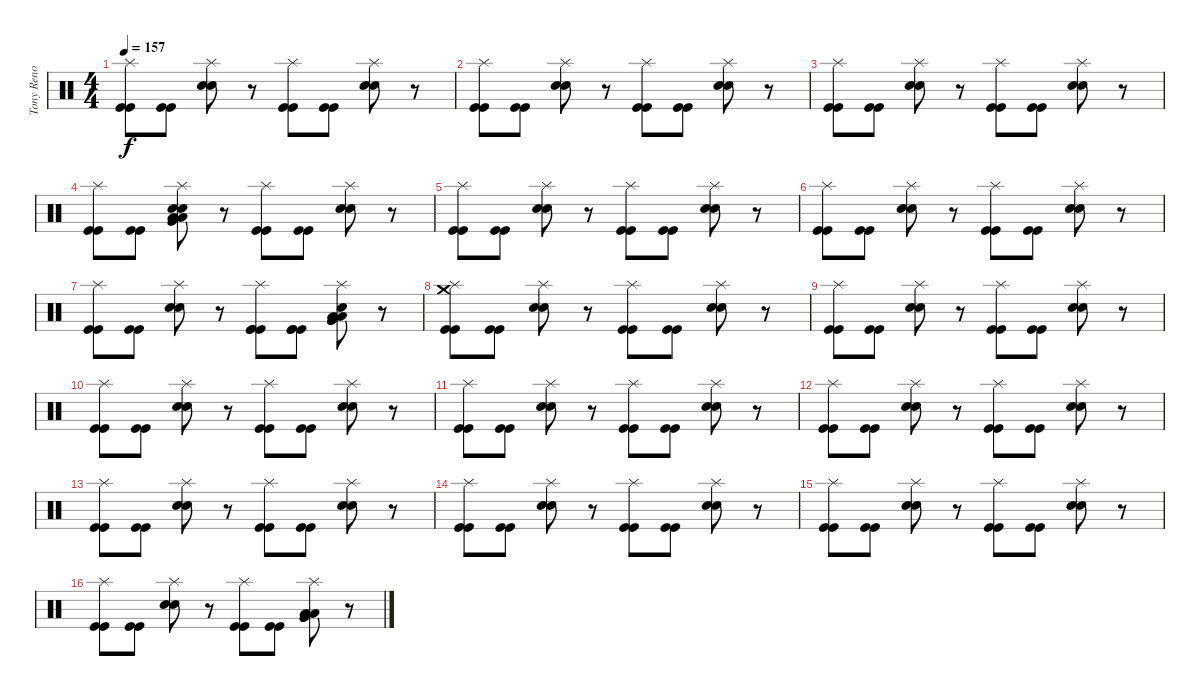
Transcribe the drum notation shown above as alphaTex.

\track ("Tony Reno ( 1984 < Ian Haughland )" "Tony Reno ") {instrument percussion}
\staff {score}
\articulation defaults
\ts (4 4)
\tempo 157
\clef neutral
\ks c
("Kick (hit)" "Kick (hit)" "Splash (hit)").8{dy f} ("Kick (hit)" "Kick (hit)").8 ("Splash (hit)" "Electric Snare (hit)" "Electric Snare (hit)").8 r.8 ("Kick (hit)" "Kick (hit)" "Splash (hit)").8 ("Kick (hit)" "Kick (hit)").8 ("Splash (hit)" "Electric Snare (hit)" "Electric Snare (hit)").8 r.8 |
("Kick (hit)" "Kick (hit)" "Splash (hit)").8 ("Kick (hit)" "Kick (hit)").8 ("Splash (hit)" "Electric Snare (hit)" "Electric Snare (hit)").8 r.8 ("Kick (hit)" "Kick (hit)" "Splash (hit)").8 ("Kick (hit)" "Kick (hit)").8 ("Splash (hit)" "Electric Snare (hit)" "Electric Snare (hit)").8 r.8 |
("Kick (hit)" "Kick (hit)" "Splash (hit)").8 ("Kick (hit)" "Kick (hit)").8 ("Splash (hit)" "Electric Snare (hit)" "Electric Snare (hit)").8 r.8 ("Kick (hit)" "Kick (hit)" "Splash (hit)").8 ("Kick (hit)" "Kick (hit)").8 ("Splash (hit)" "Electric Snare (hit)" "Electric Snare (hit)").8 r.8 |
("Kick (hit)" "Kick (hit)" "Splash (hit)").8 ("Kick (hit)" "Kick (hit)").8 ("Low Tom (hit)" "Very Low Tom (hit)" "Low Floor Tom (hit)" "Splash (hit)" "Electric Snare (hit)" "Electric Snare (hit)").8 r.8 ("Kick (hit)" "Kick (hit)" "Splash (hit)").8 ("Kick (hit)" "Kick (hit)").8 ("Splash (hit)" "Electric Snare (hit)" "Electric Snare (hit)").8 r.8 |
("Kick (hit)" "Kick (hit)" "Splash (hit)").8 ("Kick (hit)" "Kick (hit)").8 ("Splash (hit)" "Electric Snare (hit)" "Electric Snare (hit)").8 r.8 ("Kick (hit)" "Kick (hit)" "Splash (hit)").8 ("Kick (hit)" "Kick (hit)").8 ("Splash (hit)" "Electric Snare (hit)" "Electric Snare (hit)").8 r.8 |
("Kick (hit)" "Kick (hit)" "Splash (hit)").8 ("Kick (hit)" "Kick (hit)").8 ("Splash (hit)" "Electric Snare (hit)" "Electric Snare (hit)").8 r.8 ("Kick (hit)" "Kick (hit)" "Splash (hit)").8 ("Kick (hit)" "Kick (hit)").8 ("Splash (hit)" "Electric Snare (hit)" "Electric Snare (hit)").8 r.8 |
("Kick (hit)" "Kick (hit)" "Splash (hit)").8 ("Kick (hit)" "Kick (hit)").8 ("Splash (hit)" "Electric Snare (hit)" "Electric Snare (hit)").8 r.8 ("Kick (hit)" "Kick (hit)" "Splash (hit)" "Kick (hit)").8 ("Kick (hit)" "Kick (hit)" "Kick (hit)").8 ("Low Tom (hit)" "Low Tom (hit)" "Very Low Tom (hit)" "Very Low Tom (hit)" "Splash (hit)" "Electric Snare (hit)").8 r.8 |
("Crash medium (hit)" "Kick (hit)" "Kick (hit)" "Splash (hit)").8 ("Kick (hit)" "Kick (hit)").8 ("Electric Snare (hit)" "Electric Snare (hit)" "Splash (hit)").8 r.8 ("Kick (hit)" "Kick (hit)" "Splash (hit)").8 ("Kick (hit)" "Kick (hit)").8 ("Splash (hit)" "Electric Snare (hit)" "Electric Snare (hit)").8 r.8 |
("Kick (hit)" "Kick (hit)" "Splash (hit)").8 ("Kick (hit)" "Kick (hit)").8 ("Electric Snare (hit)" "Electric Snare (hit)" "Splash (hit)").8 r.8 ("Kick (hit)" "Kick (hit)" "Splash (hit)").8 ("Kick (hit)" "Kick (hit)").8 ("Splash (hit)" "Electric Snare (hit)" "Electric Snare (hit)").8 r.8 |
("Kick (hit)" "Kick (hit)" "Splash (hit)").8 ("Kick (hit)" "Kick (hit)").8 ("Electric Snare (hit)" "Electric Snare (hit)" "Splash (hit)").8 r.8 ("Kick (hit)" "Kick (hit)" "Splash (hit)").8 ("Kick (hit)" "Kick (hit)").8 ("Splash (hit)" "Electric Snare (hit)" "Electric Snare (hit)").8 r.8 |
("Kick (hit)" "Kick (hit)" "Splash (hit)").8 ("Kick (hit)" "Kick (hit)").8 ("Electric Snare (hit)" "Electric Snare (hit)" "Splash (hit)").8 r.8 ("Kick (hit)" "Kick (hit)" "Splash (hit)").8 ("Kick (hit)" "Kick (hit)").8 ("Splash (hit)" "Electric Snare (hit)" "Electric Snare (hit)").8 r.8 |
("Kick (hit)" "Kick (hit)" "Splash (hit)").8 ("Kick (hit)" "Kick (hit)").8 ("Electric Snare (hit)" "Electric Snare (hit)" "Splash (hit)").8 r.8 ("Kick (hit)" "Kick (hit)" "Splash (hit)").8 ("Kick (hit)" "Kick (hit)").8 ("Splash (hit)" "Electric Snare (hit)" "Electric Snare (hit)").8 r.8 |
("Kick (hit)" "Kick (hit)" "Splash (hit)").8 ("Kick (hit)" "Kick (hit)").8 ("Electric Snare (hit)" "Electric Snare (hit)" "Splash (hit)").8 r.8 ("Kick (hit)" "Kick (hit)" "Splash (hit)").8 ("Kick (hit)" "Kick (hit)").8 ("Splash (hit)" "Electric Snare (hit)" "Electric Snare (hit)").8 r.8 |
("Kick (hit)" "Kick (hit)" "Splash (hit)").8 ("Kick (hit)" "Kick (hit)").8 ("Electric Snare (hit)" "Electric Snare (hit)" "Splash (hit)").8 r.8 ("Kick (hit)" "Kick (hit)" "Splash (hit)").8 ("Kick (hit)" "Kick (hit)").8 ("Splash (hit)" "Electric Snare (hit)" "Electric Snare (hit)").8 r.8 |
("Kick (hit)" "Kick (hit)" "Splash (hit)").8 ("Kick (hit)" "Kick (hit)").8 ("Electric Snare (hit)" "Electric Snare (hit)" "Splash (hit)").8 r.8 ("Kick (hit)" "Kick (hit)" "Splash (hit)").8 ("Kick (hit)" "Kick (hit)").8 ("Splash (hit)" "Electric Snare (hit)" "Electric Snare (hit)").8 r.8 |
("Kick (hit)" "Kick (hit)" "Splash (hit)").8 ("Kick (hit)" "Kick (hit)").8 ("Electric Snare (hit)" "Electric Snare (hit)" "Splash (hit)").8 r.8 ("Kick (hit)" "Kick (hit)" "Splash (hit)").8 ("Kick (hit)" "Kick (hit)").8 ("Low Tom (hit)" "Low Tom (hit)" "Very Low Tom (hit)" "Very Low Tom (hit)" "Splash (hit)").8 r.8
